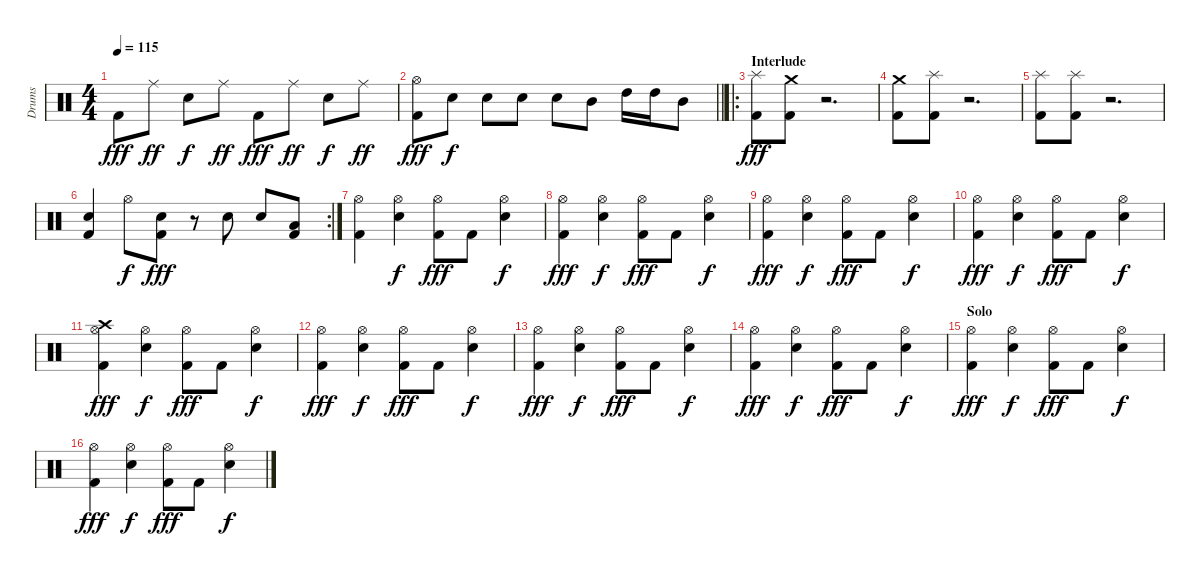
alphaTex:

\track ("Drums" "Drums") {instrument percussion}
\staff {score}
\articulation defaults
\ts (4 4)
\tempo 115
\clef neutral
\ks c "Kick (hit) 2".8{dy fff} "Ride (middle)".8{dy ff} "Snare (hit) 2".8{dy f} "Ride (middle)".8{dy ff} "Kick (hit) 2".8{dy fff} "Ride (middle)".8{dy ff} "Snare (hit) 2".8{dy f} "Ride (middle)".8{dy ff}
|
\barLineRight lightlight
("Hi-Hat (open)" "Kick (hit) 2").8{dy fff} "Snare (hit) 2".8{dy f} "Snare (hit) 2".8 "Snare (hit) 2".8 "Snare (hit) 2".8 "Mid Tom (hit)".8 "High Tom (hit)".16 "High Tom (hit)".16 "Mid Tom (hit)".8 |
\ro
\section ("" "Interlude")
("Splash (hit)" "Kick (hit) 2").8{dy fff} ("Crash medium (hit)" "Kick (hit) 2").8 r.2{d} |
("Crash medium (hit)" "Kick (hit) 2").8 ("Splash (hit)" "Kick (hit) 2").8 r.2{d} |
("Splash (hit)" "Kick (hit) 2").8 ("Splash (hit)" "Kick (hit) 2").8 r.2{d} |
\rc 2
("Snare (hit) 2" "Kick (hit) 2").4 "Hi-Hat (open)".8{dy f} ("Snare (hit) 2" "Kick (hit) 2").8{dy fff} r.8 "Snare (hit) 2".8 "Snare (hit) 2".8 ("Low Tom (hit)" "Kick (hit) 2").8 |
("Hi-Hat (open)" "Kick (hit) 2").4 ("Hi-Hat (open)" "Snare (hit) 2").4{dy f} ("Hi-Hat (open)" "Kick (hit) 2").8{dy fff} "Kick (hit) 2".8 ("Hi-Hat (open)" "Snare (hit) 2").4{dy f} |
("Hi-Hat (open)" "Kick (hit) 2").4{dy fff} ("Hi-Hat (open)" "Snare (hit) 2").4{dy f} ("Hi-Hat (open)" "Kick (hit) 2").8{dy fff} "Kick (hit) 2".8 ("Hi-Hat (open)" "Snare (hit) 2").4{dy f} |
("Hi-Hat (open)" "Kick (hit) 2").4{dy fff} ("Hi-Hat (open)" "Snare (hit) 2").4{dy f} ("Hi-Hat (open)" "Kick (hit) 2").8{dy fff} "Kick (hit) 2".8 ("Hi-Hat (open)" "Snare (hit) 2").4{dy f} |
("Hi-Hat (open)" "Kick (hit) 2").4{dy fff} ("Hi-Hat (open)" "Snare (hit) 2").4{dy f} ("Hi-Hat (open)" "Kick (hit) 2").8{dy fff} "Kick (hit) 2".8 ("Hi-Hat (open)" "Snare (hit) 2").4{dy f} |
("Hi-Hat (open)" "Crash high (hit)" "Kick (hit) 2").4{dy fff} ("Hi-Hat (open)" "Snare (hit) 2").4{dy f} ("Hi-Hat (open)" "Kick (hit) 2").8{dy fff} "Kick (hit) 2".8 ("Hi-Hat (open)" "Snare (hit) 2").4{dy f} |
("Hi-Hat (open)" "Kick (hit) 2").4{dy fff} ("Hi-Hat (open)" "Snare (hit) 2").4{dy f} ("Hi-Hat (open)" "Kick (hit) 2").8{dy fff} "Kick (hit) 2".8 ("Hi-Hat (open)" "Snare (hit) 2").4{dy f} |
("Hi-Hat (open)" "Kick (hit) 2").4{dy fff} ("Hi-Hat (open)" "Snare (hit) 2").4{dy f} ("Hi-Hat (open)" "Kick (hit) 2").8{dy fff} "Kick (hit) 2".8 ("Hi-Hat (open)" "Snare (hit) 2").4{dy f} |
("Hi-Hat (open)" "Kick (hit) 2").4{dy fff} ("Hi-Hat (open)" "Snare (hit) 2").4{dy f} ("Hi-Hat (open)" "Kick (hit) 2").8{dy fff} "Kick (hit) 2".8 ("Hi-Hat (open)" "Snare (hit) 2").4{dy f} |
\section ("" "Solo")
("Hi-Hat (open)" "Kick (hit) 2").4{dy fff} ("Hi-Hat (open)" "Snare (hit) 2").4{dy f} ("Hi-Hat (open)" "Kick (hit) 2").8{dy fff} "Kick (hit) 2".8 ("Hi-Hat (open)" "Snare (hit) 2").4{dy f} |
("Hi-Hat (open)" "Kick (hit) 2").4{dy fff} ("Hi-Hat (open)" "Snare (hit) 2").4{dy f} ("Hi-Hat (open)" "Kick (hit) 2").8{dy fff} "Kick (hit) 2".8 ("Hi-Hat (open)" "Snare (hit) 2").4{dy f}
